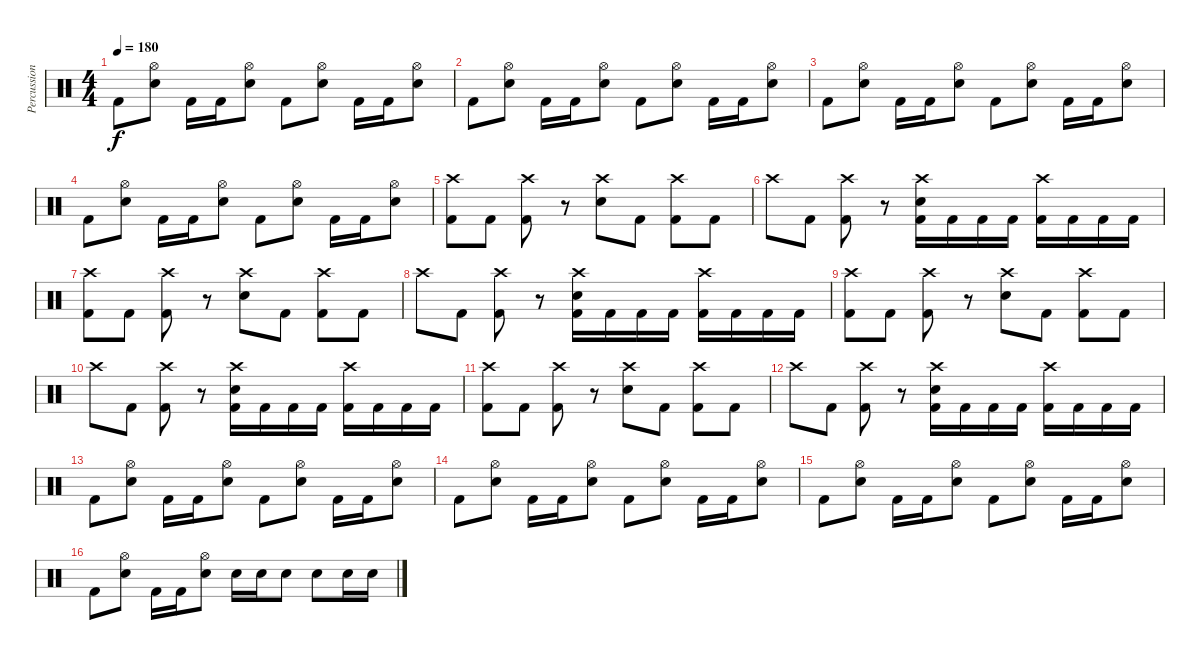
\track ("Percussion" "Percussion") {instrument percussion}
\staff {score}
\articulation defaults
\ts (4 4)
\tempo 180
\clef neutral
\ks c "Kick (hit) 2".8{dy f}
("Hi-Hat (open)" "Electric Snare (hit)").8 "Kick (hit) 2".16 "Kick (hit) 2".16 ("Hi-Hat (open)" "Electric Snare (hit)").8 "Kick (hit) 2".8 ("Hi-Hat (open)" "Electric Snare (hit)").8 "Kick (hit) 2".16 "Kick (hit) 2".16 ("Hi-Hat (open)" "Electric Snare (hit)").8 |
"Kick (hit) 2".8 ("Hi-Hat (open)" "Electric Snare (hit)").8 "Kick (hit) 2".16 "Kick (hit) 2".16 ("Hi-Hat (open)" "Electric Snare (hit)").8 "Kick (hit) 2".8 ("Hi-Hat (open)" "Electric Snare (hit)").8 "Kick (hit) 2".16 "Kick (hit) 2".16 ("Hi-Hat (open)" "Electric Snare (hit)").8 |
"Kick (hit) 2".8 ("Hi-Hat (open)" "Electric Snare (hit)").8 "Kick (hit) 2".16 "Kick (hit) 2".16 ("Hi-Hat (open)" "Electric Snare (hit)").8 "Kick (hit) 2".8 ("Hi-Hat (open)" "Electric Snare (hit)").8 "Kick (hit) 2".16 "Kick (hit) 2".16 ("Hi-Hat (open)" "Electric Snare (hit)").8 |
"Kick (hit) 2".8 ("Hi-Hat (open)" "Electric Snare (hit)").8 "Kick (hit) 2".16 "Kick (hit) 2".16 ("Hi-Hat (open)" "Electric Snare (hit)").8 "Kick (hit) 2".8 ("Hi-Hat (open)" "Electric Snare (hit)").8 "Kick (hit) 2".16 "Kick (hit) 2".16 ("Hi-Hat (open)" "Electric Snare (hit)").8 |
("Crash high (hit)" "Kick (hit) 2").8 "Kick (hit) 2".8 ("Crash high (hit)" "Kick (hit) 2").8 r.8 ("Crash high (hit)" "Electric Snare (hit)").8 "Kick (hit) 2".8 ("Crash high (hit)" "Kick (hit) 2").8 "Kick (hit) 2".8 |
"Crash high (hit)".8 "Kick (hit) 2".8 ("Crash high (hit)" "Kick (hit) 2").8 r.8 ("Crash high (hit)" "Electric Snare (hit)" "Kick (hit) 2").16 "Kick (hit) 2".16 "Kick (hit) 2".16 "Kick (hit) 2".16 ("Crash high (hit)" "Kick (hit) 2").16 "Kick (hit) 2".16 "Kick (hit) 2".16 "Kick (hit) 2".16 |
("Crash high (hit)" "Kick (hit) 2").8 "Kick (hit) 2".8 ("Crash high (hit)" "Kick (hit) 2").8 r.8 ("Crash high (hit)" "Electric Snare (hit)").8 "Kick (hit) 2".8 ("Crash high (hit)" "Kick (hit) 2").8 "Kick (hit) 2".8 |
"Crash high (hit)".8 "Kick (hit) 2".8 ("Crash high (hit)" "Kick (hit) 2").8 r.8 ("Crash high (hit)" "Electric Snare (hit)" "Kick (hit) 2").16 "Kick (hit) 2".16 "Kick (hit) 2".16 "Kick (hit) 2".16 ("Crash high (hit)" "Kick (hit) 2").16 "Kick (hit) 2".16 "Kick (hit) 2".16 "Kick (hit) 2".16 |
("Crash high (hit)" "Kick (hit) 2").8 "Kick (hit) 2".8 ("Crash high (hit)" "Kick (hit) 2").8 r.8 ("Crash high (hit)" "Electric Snare (hit)").8 "Kick (hit) 2".8 ("Crash high (hit)" "Kick (hit) 2").8 "Kick (hit) 2".8 |
"Crash high (hit)".8 "Kick (hit) 2".8 ("Crash high (hit)" "Kick (hit) 2").8 r.8 ("Crash high (hit)" "Electric Snare (hit)" "Kick (hit) 2").16 "Kick (hit) 2".16 "Kick (hit) 2".16 "Kick (hit) 2".16 ("Crash high (hit)" "Kick (hit) 2").16 "Kick (hit) 2".16 "Kick (hit) 2".16 "Kick (hit) 2".16 |
("Crash high (hit)" "Kick (hit) 2").8 "Kick (hit) 2".8 ("Crash high (hit)" "Kick (hit) 2").8 r.8 ("Crash high (hit)" "Electric Snare (hit)").8 "Kick (hit) 2".8 ("Crash high (hit)" "Kick (hit) 2").8 "Kick (hit) 2".8 |
"Crash high (hit)".8 "Kick (hit) 2".8 ("Crash high (hit)" "Kick (hit) 2").8 r.8 ("Crash high (hit)" "Electric Snare (hit)" "Kick (hit) 2").16 "Kick (hit) 2".16 "Kick (hit) 2".16 "Kick (hit) 2".16 ("Crash high (hit)" "Kick (hit) 2").16 "Kick (hit) 2".16 "Kick (hit) 2".16 "Kick (hit) 2".16 |
"Kick (hit) 2".8 ("Hi-Hat (open)" "Electric Snare (hit)").8 "Kick (hit) 2".16 "Kick (hit) 2".16 ("Hi-Hat (open)" "Electric Snare (hit)").8 "Kick (hit) 2".8 ("Hi-Hat (open)" "Electric Snare (hit)").8 "Kick (hit) 2".16 "Kick (hit) 2".16 ("Hi-Hat (open)" "Electric Snare (hit)").8 |
"Kick (hit) 2".8 ("Hi-Hat (open)" "Electric Snare (hit)").8 "Kick (hit) 2".16 "Kick (hit) 2".16 ("Hi-Hat (open)" "Electric Snare (hit)").8 "Kick (hit) 2".8 ("Hi-Hat (open)" "Electric Snare (hit)").8 "Kick (hit) 2".16 "Kick (hit) 2".16 ("Hi-Hat (open)" "Electric Snare (hit)").8 |
"Kick (hit) 2".8 ("Hi-Hat (open)" "Electric Snare (hit)").8 "Kick (hit) 2".16 "Kick (hit) 2".16 ("Hi-Hat (open)" "Electric Snare (hit)").8 "Kick (hit) 2".8 ("Hi-Hat (open)" "Electric Snare (hit)").8 "Kick (hit) 2".16 "Kick (hit) 2".16 ("Hi-Hat (open)" "Electric Snare (hit)").8 |
"Kick (hit) 2".8 ("Hi-Hat (open)" "Electric Snare (hit)").8 "Kick (hit) 2".16 "Kick (hit) 2".16 ("Hi-Hat (open)" "Electric Snare (hit)").8 "Electric Snare (hit)".16 "Electric Snare (hit)".16 "Electric Snare (hit)".8 "Electric Snare (hit)".8 "Electric Snare (hit)".16 "Electric Snare (hit)".16
